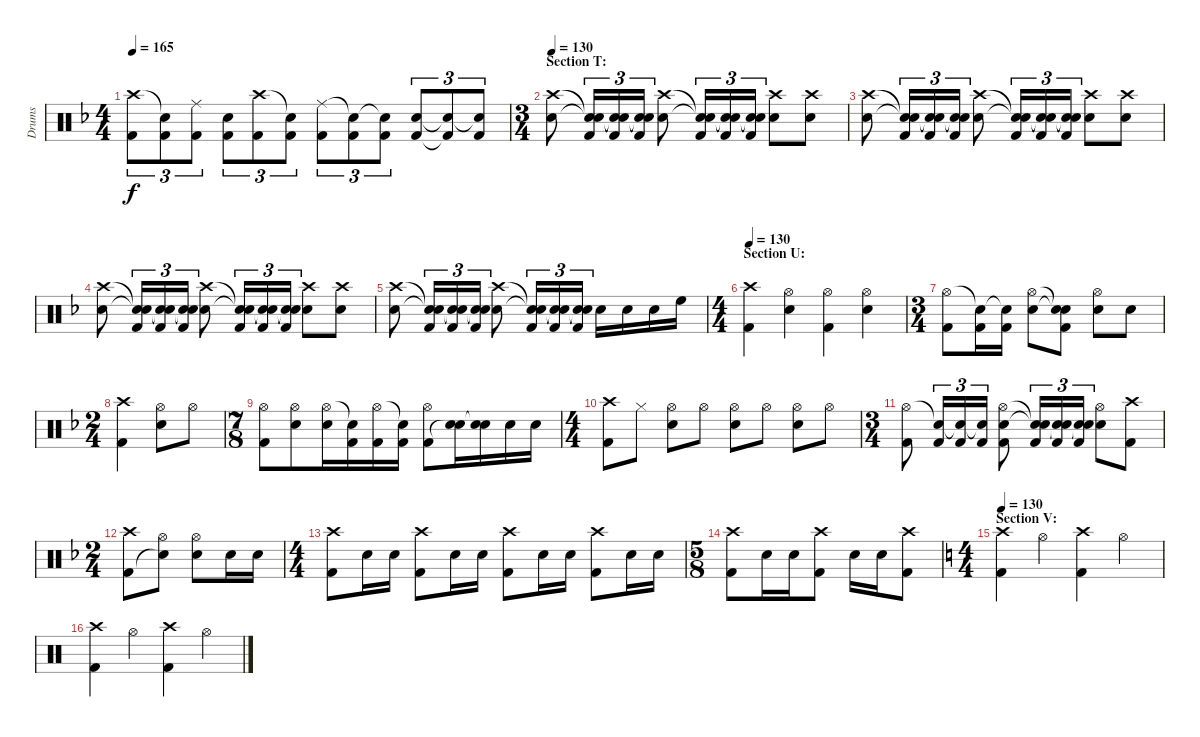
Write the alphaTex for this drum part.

\track ("Drums" "Drums") {instrument percussion}
\staff {score}
\articulation defaults
\ts (4 4)
\tempo 165
\clef neutral
\ks f
("Crash high (hit)" "Kick (hit) 2").8{tu (3 2) dy f} ("Snare (hit)"{t} "Kick (hit) 2").8{tu (3 2)} ("Ride (middle)" "Kick (hit) 2").8{tu (3 2)} ("Snare (hit) 2" "Kick (hit) 2").8{tu (3 2)} ("Crash high (hit)" "Kick (hit) 2").8{tu (3 2)} ("Snare (hit)"{t} "Kick (hit) 2").8{tu (3 2)} ("Ride (middle)" "Kick (hit) 2").8{tu (3 2)} ("Snare (hit)"{t} "Kick (hit) 2").8{tu (3 2)} ("Snare (hit)"{t} "Kick (hit) 2").8{tu (3 2)} ("Snare (hit) 2" "Kick (hit) 2").8{tu (3 2)} ("Snare (hit)"{t} "Kick (hit) 2"{t}).8{tu (3 2)} ("Snare (hit)"{t} "Kick (hit) 2").8{tu (3 2)} |
\ts (3 4)
\section ("" "Section T:")
\tempo 130
("Crash high (hit)" "Snare (hit) 2").8 ("Snare (hit)"{t} "Snare (hit)"{t} "Kick (hit) 2").16{tu (3 2)} ("Snare (hit)"{t} "Snare (hit)"{t} "Kick (hit) 2").16{tu (3 2)} ("Snare (hit)"{t} "Snare (hit)"{t} "Kick (hit) 2").16{tu (3 2)} ("Crash high (hit)" "Snare (hit) 2").8 ("Snare (hit)"{t} "Snare (hit)"{t} "Kick (hit) 2").16{tu (3 2)} ("Snare (hit)"{t} "Snare (hit)"{t} "Kick (hit) 2").16{tu (3 2)} ("Snare (hit)"{t} "Snare (hit)"{t} "Kick (hit) 2").16{tu (3 2)} ("Crash high (hit)" "Snare (hit) 2").8 ("Crash high (hit)" "Snare (hit) 2").8 |
("Crash high (hit)" "Snare (hit) 2").8 ("Snare (hit)"{t} "Snare (hit)"{t} "Kick (hit) 2").16{tu (3 2)} ("Snare (hit)"{t} "Snare (hit)"{t} "Kick (hit) 2").16{tu (3 2)} ("Snare (hit)"{t} "Snare (hit)"{t} "Kick (hit) 2").16{tu (3 2)} ("Crash high (hit)" "Snare (hit) 2").8 ("Snare (hit)"{t} "Snare (hit)"{t} "Kick (hit) 2").16{tu (3 2)} ("Snare (hit)"{t} "Snare (hit)"{t} "Kick (hit) 2").16{tu (3 2)} ("Snare (hit)"{t} "Snare (hit)"{t} "Kick (hit) 2").16{tu (3 2)} ("Crash high (hit)" "Snare (hit) 2").8 ("Crash high (hit)" "Snare (hit) 2").8 |
("Crash high (hit)" "Snare (hit) 2").8 ("Snare (hit)"{t} "Snare (hit)"{t} "Kick (hit) 2").16{tu (3 2)} ("Snare (hit)"{t} "Snare (hit)"{t} "Kick (hit) 2").16{tu (3 2)} ("Snare (hit)"{t} "Snare (hit)"{t} "Kick (hit) 2").16{tu (3 2)} ("Crash high (hit)" "Snare (hit) 2").8 ("Snare (hit)"{t} "Snare (hit)"{t} "Kick (hit) 2").16{tu (3 2)} ("Snare (hit)"{t} "Snare (hit)"{t} "Kick (hit) 2").16{tu (3 2)} ("Snare (hit)"{t} "Snare (hit)"{t} "Kick (hit) 2").16{tu (3 2)} ("Crash high (hit)" "Snare (hit) 2").8 ("Crash high (hit)" "Snare (hit) 2").8 |
("Crash high (hit)" "Snare (hit) 2").8 ("Snare (hit)"{t} "Snare (hit)"{t} "Kick (hit) 2").16{tu (3 2)} ("Snare (hit)"{t} "Snare (hit)"{t} "Kick (hit) 2").16{tu (3 2)} ("Snare (hit)"{t} "Snare (hit)"{t} "Kick (hit) 2").16{tu (3 2)} ("Crash high (hit)" "Snare (hit) 2").8 ("Snare (hit)"{t} "Snare (hit)"{t} "Kick (hit) 2").16{tu (3 2)} ("Snare (hit)"{t} "Snare (hit)"{t} "Kick (hit) 2").16{tu (3 2)} ("Snare (hit)"{t} "Snare (hit)"{t} "Kick (hit) 2").16{tu (3 2)} "Snare (hit) 2".16 "Snare (hit) 2".16 "Snare (hit) 2".16 "High Floor Tom (hit)".16 |
\ts (4 4)
\section ("" "Section U:")
\tempo 170
\tempo 130
("Crash high (hit)" "Kick (hit) 2").4 ("Hi-Hat (open)" "Snare (hit) 2").4 ("Hi-Hat (open)" "Kick (hit) 2").4 ("Hi-Hat (open)" "Snare (hit) 2").4 |
\ts (3 4)
("Hi-Hat (open)" "Kick (hit) 2").8 ("Snare (hit)"{t} "Kick (hit) 2").16 ("Snare (hit)"{t} "Kick (hit) 2").16 ("Hi-Hat (open)" "Snare (hit) 2").8 ("Snare (hit)"{t} "Snare (hit)"{t} "Kick (hit) 2").8 ("Hi-Hat (open)" "Snare (hit) 2").8 "Snare (hit) 2".8 |
\ts (2 4)
("Crash high (hit)" "Kick (hit) 2").4 ("Hi-Hat (open)" "Snare (hit) 2").8 "Hi-Hat (open)".8 |
\ts (7 8)
("Hi-Hat (open)" "Kick (hit) 2").8 ("Hi-Hat (open)" "Snare (hit) 2").8 ("Hi-Hat (open)" "Snare (hit) 2").16 ("Snare (hit)"{t} "Kick (hit) 2").16 ("Hi-Hat (open)" "Kick (hit) 2").16 ("Snare (hit)"{t} "Kick (hit) 2").16 ("Hi-Hat (open)" "Kick (hit) 2").8 ("Snare (hit) 2" "Snare (hit)"{t}).16 ("Snare (hit) 2" "Snare (hit)"{t}).16 "Snare (hit) 2".16 "Snare (hit) 2".16 |
\ts (4 4)
("Crash high (hit)" "Kick (hit) 2").8 "Hi-Hat (closed)".8 ("Hi-Hat (open)" "Snare (hit) 2").8 "Hi-Hat (open)".8 ("Hi-Hat (open)" "Snare (hit) 2").8 "Hi-Hat (open)".8 ("Hi-Hat (open)" "Snare (hit) 2").8 "Hi-Hat (open)".8 |
\ts (3 4)
("Hi-Hat (open)" "Kick (hit) 2").8 ("Snare (hit)"{t} "Kick (hit) 2").16{tu (3 2)} ("Snare (hit)"{t} "Kick (hit) 2").16{tu (3 2)} ("Snare (hit)"{t} "Kick (hit) 2").16{tu (3 2)} ("Hi-Hat (open)" "Snare (hit) 2" "Kick (hit) 2").8 ("Snare (hit)"{t} "Snare (hit)"{t} "Kick (hit) 2").16{tu (3 2)} ("Snare (hit)"{t} "Snare (hit)"{t} "Kick (hit) 2").16{tu (3 2)} ("Snare (hit)"{t} "Snare (hit)"{t} "Kick (hit) 2").16{tu (3 2)} ("Hi-Hat (open)" "Snare (hit) 2").8 ("Crash high (hit)" "Kick (hit) 2").8 |
\ts (2 4)
("Crash high (hit)" "Kick (hit) 2").8 ("Hi-Hat (open)" "Snare (hit)"{t}).8 ("Hi-Hat (open)" "Snare (hit) 2").8 "Snare (hit) 2".16 "Snare (hit) 2".16 |
\ts (4 4)
("Crash high (hit)" "Kick (hit) 2").8 "Snare (hit) 2".16 "Snare (hit) 2".16 ("Crash high (hit)" "Kick (hit) 2").8 "Snare (hit) 2".16 "Snare (hit) 2".16 ("Crash high (hit)" "Kick (hit) 2").8 "Snare (hit) 2".16 "Snare (hit) 2".16 ("Crash high (hit)" "Kick (hit) 2").8 "Snare (hit) 2".16 "Snare (hit) 2".16 |
\ts (5 8)
("Crash high (hit)" "Kick (hit) 2").8 "Snare (hit) 2".16 "Snare (hit) 2".16 ("Crash high (hit)" "Kick (hit) 2").8 "Snare (hit) 2".16 "Snare (hit) 2".16 ("Crash high (hit)" "Kick (hit) 2").8 |
\ts (4 4)
\section ("" "Section V:")
\tempo 130
\ks c
("Crash high (hit)" "Kick (hit) 2").4 "Hi-Hat (open)".4 ("Crash high (hit)" "Kick (hit) 2").4 "Hi-Hat (open)".4 |
("Crash high (hit)" "Kick (hit) 2").4 "Hi-Hat (open)".4 ("Crash high (hit)" "Kick (hit) 2").4 "Hi-Hat (open)".4
